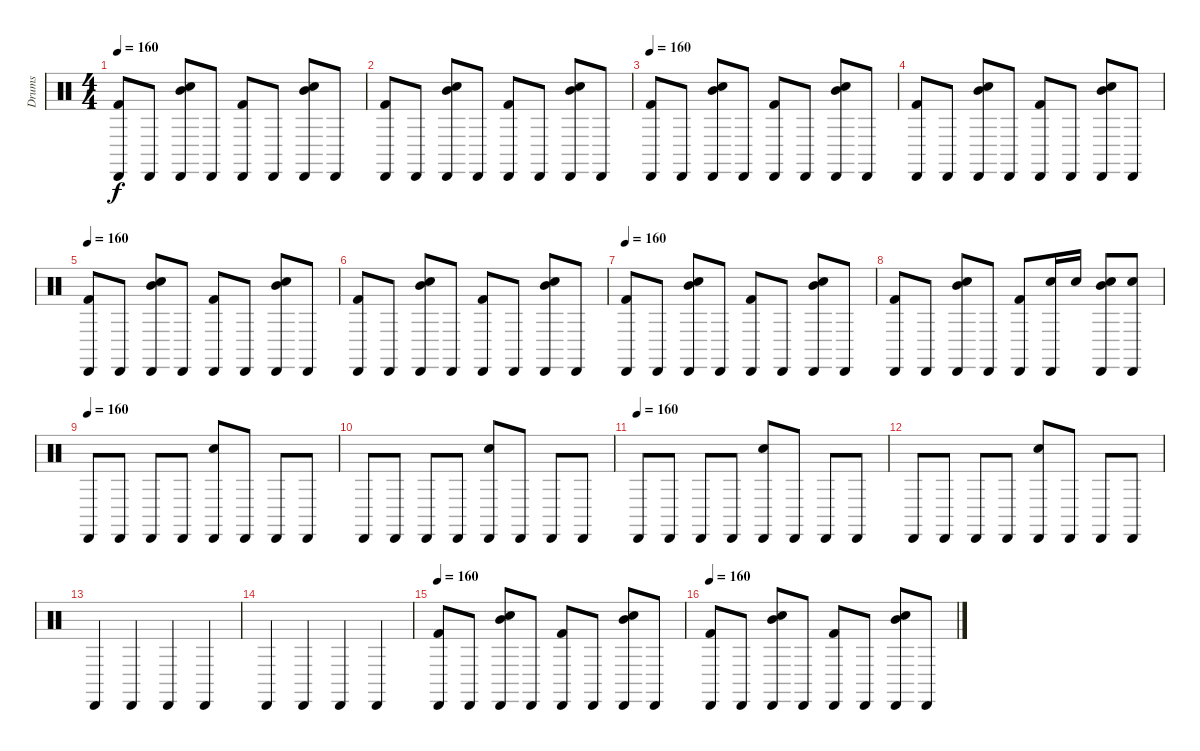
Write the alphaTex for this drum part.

\track ("Drums" "Drums") {instrument percussion}
\staff {score}
\articulation defaults
\ts (4 4)
\tempo 160
\clef neutral
\ks c
("Kick (hit) 2" "Cabasa (hit)").8{dy f} "Cabasa (hit)".8 ("Electric Snare (hit)" "Mid Tom (hit)" "Cabasa (hit)").8 "Cabasa (hit)".8 ("Cabasa (hit)" "Kick (hit) 2").8 "Cabasa (hit)".8 ("Cabasa (hit)" "Electric Snare (hit)" "Mid Tom (hit)").8 "Cabasa (hit)".8 |
("Cabasa (hit)" "Kick (hit) 2").8 "Cabasa (hit)".8 ("Electric Snare (hit)" "Cabasa (hit)" "Mid Tom (hit)").8 "Cabasa (hit)".8 ("Cabasa (hit)" "Kick (hit) 2").8 "Cabasa (hit)".8 ("Mid Tom (hit)" "Electric Snare (hit)" "Cabasa (hit)").8 "Cabasa (hit)".8 |
\tempo 160
("Kick (hit) 2" "Cabasa (hit)").8 "Cabasa (hit)".8 ("Electric Snare (hit)" "Mid Tom (hit)" "Cabasa (hit)").8 "Cabasa (hit)".8 ("Cabasa (hit)" "Kick (hit) 2").8 "Cabasa (hit)".8 ("Cabasa (hit)" "Electric Snare (hit)" "Mid Tom (hit)").8 "Cabasa (hit)".8 |
("Cabasa (hit)" "Kick (hit) 2").8 "Cabasa (hit)".8 ("Electric Snare (hit)" "Cabasa (hit)" "Mid Tom (hit)").8 "Cabasa (hit)".8 ("Cabasa (hit)" "Kick (hit) 2").8 "Cabasa (hit)".8 ("Mid Tom (hit)" "Electric Snare (hit)" "Cabasa (hit)").8 "Cabasa (hit)".8 |
\tempo 160
("Kick (hit) 2" "Cabasa (hit)").8 "Cabasa (hit)".8 ("Electric Snare (hit)" "Mid Tom (hit)" "Cabasa (hit)").8 "Cabasa (hit)".8 ("Cabasa (hit)" "Kick (hit) 2").8 "Cabasa (hit)".8 ("Cabasa (hit)" "Electric Snare (hit)" "Mid Tom (hit)").8 "Cabasa (hit)".8 |
("Cabasa (hit)" "Kick (hit) 2").8 "Cabasa (hit)".8 ("Electric Snare (hit)" "Cabasa (hit)" "Mid Tom (hit)").8 "Cabasa (hit)".8 ("Cabasa (hit)" "Kick (hit) 2").8 "Cabasa (hit)".8 ("Mid Tom (hit)" "Electric Snare (hit)" "Cabasa (hit)").8 "Cabasa (hit)".8 |
\tempo 160
("Kick (hit) 2" "Cabasa (hit)").8 "Cabasa (hit)".8 ("Electric Snare (hit)" "Mid Tom (hit)" "Cabasa (hit)").8 "Cabasa (hit)".8 ("Cabasa (hit)" "Kick (hit) 2").8 "Cabasa (hit)".8 ("Cabasa (hit)" "Electric Snare (hit)" "Mid Tom (hit)").8 "Cabasa (hit)".8 |
("Cabasa (hit)" "Kick (hit) 2").8 "Cabasa (hit)".8 ("Electric Snare (hit)" "Cabasa (hit)" "Mid Tom (hit)").8 "Cabasa (hit)".8 ("Cabasa (hit)" "Kick (hit) 2").8 ("Electric Snare (hit)" "Cabasa (hit)").16 "Electric Snare (hit)".16 ("Electric Snare (hit)" "Mid Tom (hit)" "Cabasa (hit)").8 ("Electric Snare (hit)" "Cabasa (hit)").8 |
\tempo (160)
"Cabasa (hit)".8 "Cabasa (hit)".8 "Cabasa (hit)".8 "Cabasa (hit)".8 ("Electric Snare (hit)" "Cabasa (hit)").8 "Cabasa (hit)".8 "Cabasa (hit)".8 "Cabasa (hit)".8 |
"Cabasa (hit)".8 "Cabasa (hit)".8 "Cabasa (hit)".8 "Cabasa (hit)".8 ("Electric Snare (hit)" "Cabasa (hit)").8 "Cabasa (hit)".8 "Cabasa (hit)".8 "Cabasa (hit)".8 |
\tempo (160)
"Cabasa (hit)".8 "Cabasa (hit)".8 "Cabasa (hit)".8 "Cabasa (hit)".8 ("Electric Snare (hit)" "Cabasa (hit)").8 "Cabasa (hit)".8 "Cabasa (hit)".8 "Cabasa (hit)".8 |
"Cabasa (hit)".8 "Cabasa (hit)".8 "Cabasa (hit)".8 "Cabasa (hit)".8 ("Electric Snare (hit)" "Cabasa (hit)").8 "Cabasa (hit)".8 "Cabasa (hit)".8 "Cabasa (hit)".8 |
"Cabasa (hit)".4 "Cabasa (hit)".4 "Cabasa (hit)".4 "Cabasa (hit)".4 |
"Cabasa (hit)".4 "Cabasa (hit)".4 "Cabasa (hit)".4 "Cabasa (hit)".4 |
\tempo 160
("Cabasa (hit)" "Kick (hit) 2").8 "Cabasa (hit)".8 ("Electric Snare (hit)" "Cabasa (hit)" "Mid Tom (hit)").8 "Cabasa (hit)".8 ("Cabasa (hit)" "Kick (hit) 2").8 "Cabasa (hit)".8 ("Mid Tom (hit)" "Electric Snare (hit)" "Cabasa (hit)").8 "Cabasa (hit)".8 |
\tempo 160
("Kick (hit) 2" "Cabasa (hit)").8 "Cabasa (hit)".8 ("Electric Snare (hit)" "Mid Tom (hit)" "Cabasa (hit)").8 "Cabasa (hit)".8 ("Cabasa (hit)" "Kick (hit) 2").8 "Cabasa (hit)".8 ("Cabasa (hit)" "Electric Snare (hit)" "Mid Tom (hit)").8 "Cabasa (hit)".8
